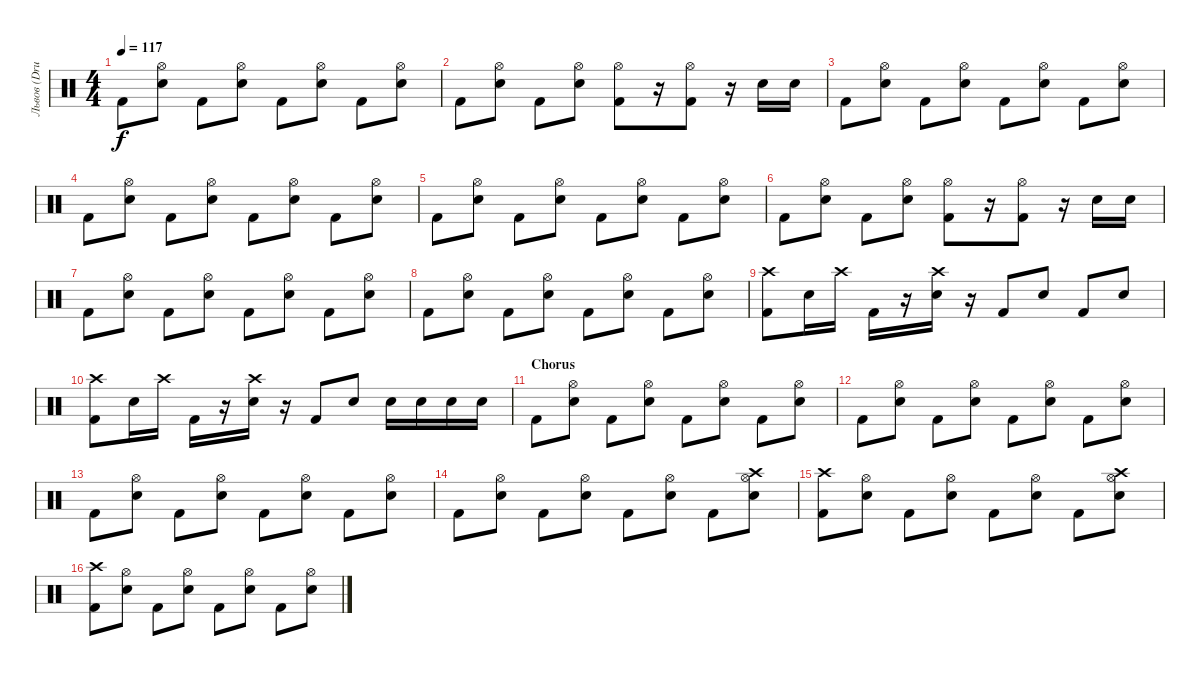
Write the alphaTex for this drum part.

\track ("Львов (Drums)" "Львов (Dru") {instrument percussion}
\staff {score}
\articulation defaults
\ts (4 4)
\tempo 117
\clef neutral
\ks c "Kick (hit) 2".8{dy f}
("Electric Snare (hit)" "Hi-Hat (open)").8 "Kick (hit) 2".8 ("Electric Snare (hit)" "Hi-Hat (open)").8 "Kick (hit) 2".8 ("Electric Snare (hit)" "Hi-Hat (open)").8 "Kick (hit) 2".8 ("Electric Snare (hit)" "Hi-Hat (open)").8 |
"Kick (hit) 2".8 ("Electric Snare (hit)" "Hi-Hat (open)").8 "Kick (hit) 2".8 ("Electric Snare (hit)" "Hi-Hat (open)").8 ("Kick (hit) 2" "Hi-Hat (open)").8 r.16 ("Kick (hit) 2" "Hi-Hat (open)").8 r.16 "Electric Snare (hit)".16 "Electric Snare (hit)".16 |
"Kick (hit) 2".8 ("Electric Snare (hit)" "Hi-Hat (open)").8 "Kick (hit) 2".8 ("Electric Snare (hit)" "Hi-Hat (open)").8 "Kick (hit) 2".8 ("Electric Snare (hit)" "Hi-Hat (open)").8 "Kick (hit) 2".8 ("Electric Snare (hit)" "Hi-Hat (open)").8 |
"Kick (hit) 2".8 ("Electric Snare (hit)" "Hi-Hat (open)").8 "Kick (hit) 2".8 ("Electric Snare (hit)" "Hi-Hat (open)").8 "Kick (hit) 2".8 ("Electric Snare (hit)" "Hi-Hat (open)").8 "Kick (hit) 2".8 ("Electric Snare (hit)" "Hi-Hat (open)").8 |
"Kick (hit) 2".8 ("Electric Snare (hit)" "Hi-Hat (open)").8 "Kick (hit) 2".8 ("Electric Snare (hit)" "Hi-Hat (open)").8 "Kick (hit) 2".8 ("Electric Snare (hit)" "Hi-Hat (open)").8 "Kick (hit) 2".8 ("Electric Snare (hit)" "Hi-Hat (open)").8 |
"Kick (hit) 2".8 ("Electric Snare (hit)" "Hi-Hat (open)").8 "Kick (hit) 2".8 ("Electric Snare (hit)" "Hi-Hat (open)").8 ("Kick (hit) 2" "Hi-Hat (open)").8 r.16 ("Kick (hit) 2" "Hi-Hat (open)").8 r.16 "Electric Snare (hit)".16 "Electric Snare (hit)".16 |
"Kick (hit) 2".8 ("Electric Snare (hit)" "Hi-Hat (open)").8 "Kick (hit) 2".8 ("Electric Snare (hit)" "Hi-Hat (open)").8 "Kick (hit) 2".8 ("Electric Snare (hit)" "Hi-Hat (open)").8 "Kick (hit) 2".8 ("Electric Snare (hit)" "Hi-Hat (open)").8 |
"Kick (hit) 2".8 ("Electric Snare (hit)" "Hi-Hat (open)").8 "Kick (hit) 2".8 ("Electric Snare (hit)" "Hi-Hat (open)").8 "Kick (hit) 2".8 ("Electric Snare (hit)" "Hi-Hat (open)").8 "Kick (hit) 2".8 ("Electric Snare (hit)" "Hi-Hat (open)").8 |
("Kick (hit) 2" "Crash high (hit)").8 "Electric Snare (hit)".16 "Crash high (hit)".16 "Kick (hit) 2".16 r.16 ("Electric Snare (hit)" "Crash high (hit)").16 r.16 "Kick (hit) 2".8 "Electric Snare (hit)".8 "Kick (hit) 2".8 "Electric Snare (hit)".8 |
("Kick (hit) 2" "Crash high (hit)").8 "Electric Snare (hit)".16 "Crash high (hit)".16 "Kick (hit) 2".16 r.16 ("Electric Snare (hit)" "Crash high (hit)").16 r.16 "Kick (hit) 2".8 "Electric Snare (hit)".8 "Electric Snare (hit)".16 "Electric Snare (hit)".16 "Electric Snare (hit)".16 "Electric Snare (hit)".16 |
\section ("" "Chorus")
"Kick (hit) 2".8 ("Electric Snare (hit)" "Hi-Hat (open)").8 "Kick (hit) 2".8 ("Electric Snare (hit)" "Hi-Hat (open)").8 "Kick (hit) 2".8 ("Electric Snare (hit)" "Hi-Hat (open)").8 "Kick (hit) 2".8 ("Electric Snare (hit)" "Hi-Hat (open)").8 |
"Kick (hit) 2".8 ("Electric Snare (hit)" "Hi-Hat (open)").8 "Kick (hit) 2".8 ("Electric Snare (hit)" "Hi-Hat (open)").8 "Kick (hit) 2".8 ("Electric Snare (hit)" "Hi-Hat (open)").8 "Kick (hit) 2".8 ("Electric Snare (hit)" "Hi-Hat (open)").8 |
"Kick (hit) 2".8 ("Electric Snare (hit)" "Hi-Hat (open)").8 "Kick (hit) 2".8 ("Electric Snare (hit)" "Hi-Hat (open)").8 "Kick (hit) 2".8 ("Electric Snare (hit)" "Hi-Hat (open)").8 "Kick (hit) 2".8 ("Electric Snare (hit)" "Hi-Hat (open)").8 |
"Kick (hit) 2".8 ("Electric Snare (hit)" "Hi-Hat (open)").8 "Kick (hit) 2".8 ("Electric Snare (hit)" "Hi-Hat (open)").8 "Kick (hit) 2".8 ("Electric Snare (hit)" "Hi-Hat (open)").8 "Kick (hit) 2".8 ("Electric Snare (hit)" "Hi-Hat (open)" "Crash high (hit)").8 |
("Kick (hit) 2" "Crash high (hit)").8 ("Electric Snare (hit)" "Hi-Hat (open)").8 "Kick (hit) 2".8 ("Electric Snare (hit)" "Hi-Hat (open)").8 "Kick (hit) 2".8 ("Electric Snare (hit)" "Hi-Hat (open)").8 "Kick (hit) 2".8 ("Electric Snare (hit)" "Hi-Hat (open)" "Crash high (hit)").8 |
("Kick (hit) 2" "Crash high (hit)").8 ("Electric Snare (hit)" "Hi-Hat (open)").8 "Kick (hit) 2".8 ("Electric Snare (hit)" "Hi-Hat (open)").8 "Kick (hit) 2".8 ("Electric Snare (hit)" "Hi-Hat (open)").8 "Kick (hit) 2".8 ("Electric Snare (hit)" "Hi-Hat (open)").8
